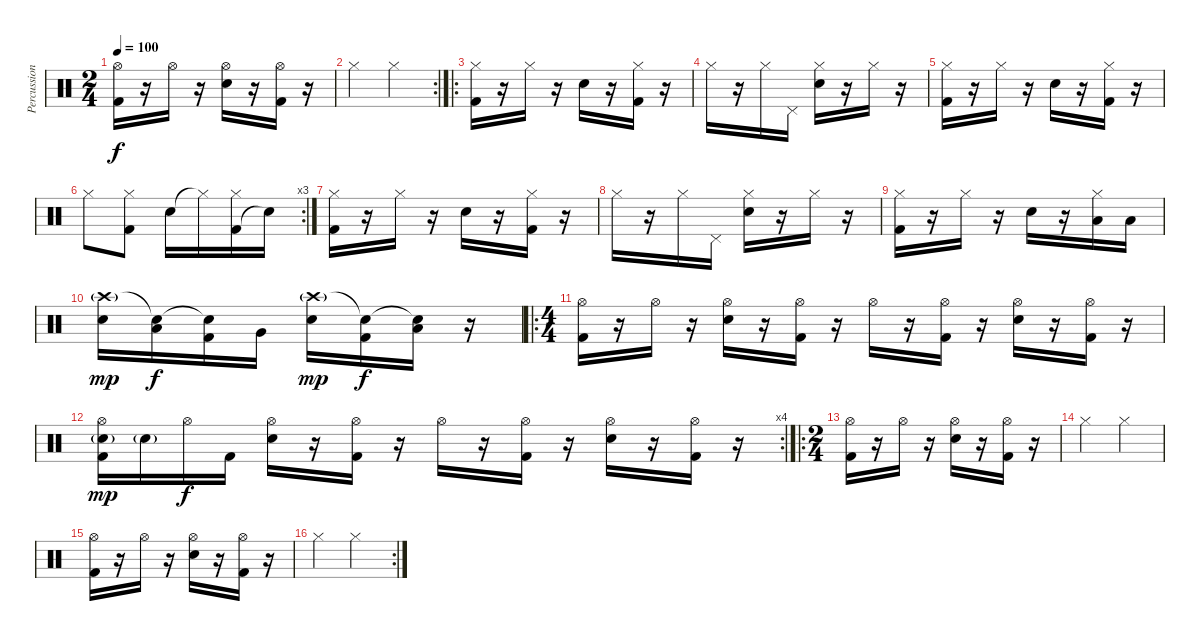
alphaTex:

\track ("Percussion" "Percussion") {instrument percussion}
\staff {score}
\articulation defaults
\ts (2 4)
\tempo 100
\clef neutral
\ks c
("Kick (hit) 2" "Hi-Hat (open)").16{dy f} r.16 "Hi-Hat (open)".16 r.16 ("Electric Snare (hit)" "Hi-Hat (open)").16 r.16 ("Kick (hit) 2" "Hi-Hat (open)").16 r.16 |
\rc 2 "Hi-Hat (closed)".4 "Hi-Hat (closed)".4
|
\ro
("Kick (hit) 2" "Hi-Hat (closed)").16 r.16 "Hi-Hat (closed)".16 r.16 "Electric Snare (hit)".16 r.16 ("Kick (hit) 2" "Hi-Hat (closed)").16 r.16 |
"Hi-Hat (closed)".16 r.16 "Hi-Hat (closed)".16 "Pedal Hi-Hat (hit)".16 ("Electric Snare (hit)" "Hi-Hat (closed)").16 r.16 "Hi-Hat (closed)".16 r.16 |
("Kick (hit) 2" "Hi-Hat (closed)").16 r.16 "Hi-Hat (closed)".16 r.16 "Electric Snare (hit)".16 r.16 ("Kick (hit) 2" "Hi-Hat (closed)").16 r.16 |
\rc 3 "Hi-Hat (closed)".8
("Kick (hit) 2" "Hi-Hat (closed)").8 "Electric Snare (hit)".16 "Hi-Hat (closed)"{t}.16 ("Kick (hit) 2" "Hi-Hat (closed)").16 "Snare (hit)"{t}.16 |
("Kick (hit) 2" "Hi-Hat (closed)").16 r.16 "Hi-Hat (closed)".16 r.16 "Electric Snare (hit)".16 r.16 ("Kick (hit) 2" "Hi-Hat (closed)").16 r.16 |
"Hi-Hat (closed)".16 r.16 "Hi-Hat (closed)".16 "Pedal Hi-Hat (hit)".16 ("Electric Snare (hit)" "Hi-Hat (closed)").16 r.16 "Hi-Hat (closed)".16 r.16 |
("Kick (hit) 2" "Hi-Hat (closed)").16 r.16 "Hi-Hat (closed)".16 r.16 "Electric Snare (hit)".16 r.16 ("Low Tom (hit)" "Hi-Hat (closed)").16 "Low Tom (hit)".16 |
("Electric Snare (hit)" "Crash high (hit)"{g}).16{dy mp} ("Low Tom (hit)" "Snare (hit)"{t}).16{dy f} ("Kick (hit) 2" "Snare (hit)"{t}).16 "Very Low Tom (hit)".16 ("Electric Snare (hit)" "Crash high (hit)"{g}).16{dy mp} ("Kick (hit) 2" "Snare (hit)"{t}).16{dy f} ("Low Floor Tom (hit)" "Snare (hit)"{t}).16 r.16 |
\ro
\ts (4 4)
("Kick (hit) 2" "Hi-Hat (open)").16 r.16 "Hi-Hat (open)".16 r.16 ("Electric Snare (hit)" "Hi-Hat (open)").16 r.16 ("Kick (hit) 2" "Hi-Hat (open)").16 r.16 "Hi-Hat (open)".16 r.16 ("Kick (hit) 2" "Hi-Hat (open)").16 r.16 ("Electric Snare (hit)" "Hi-Hat (open)").16 r.16 ("Kick (hit) 2" "Hi-Hat (open)").16 r.16 |
\rc 4
("Kick (hit) 2" "Electric Snare (hit)"{g} "Hi-Hat (open)").16{dy mp} "Electric Snare (hit)"{g}.16 "Hi-Hat (open)".16{dy f} "Kick (hit) 2".16 ("Electric Snare (hit)" "Hi-Hat (open)").16 r.16 ("Kick (hit) 2" "Hi-Hat (open)").16 r.16 "Hi-Hat (open)".16 r.16 ("Kick (hit) 2" "Hi-Hat (open)").16 r.16 ("Electric Snare (hit)" "Hi-Hat (open)").16 r.16 ("Kick (hit) 2" "Hi-Hat (open)").16 r.16 |
\ro
\ts (2 4)
("Kick (hit) 2" "Hi-Hat (open)").16 r.16 "Hi-Hat (open)".16 r.16 ("Electric Snare (hit)" "Hi-Hat (open)").16 r.16 ("Kick (hit) 2" "Hi-Hat (open)").16 r.16 |
"Hi-Hat (closed)".4 "Hi-Hat (closed)".4 |
("Kick (hit) 2" "Hi-Hat (open)").16 r.16 "Hi-Hat (open)".16 r.16 ("Electric Snare (hit)" "Hi-Hat (open)").16 r.16 ("Kick (hit) 2" "Hi-Hat (open)").16 r.16 |
\rc 2 "Hi-Hat (closed)".4 "Hi-Hat (closed)".4
